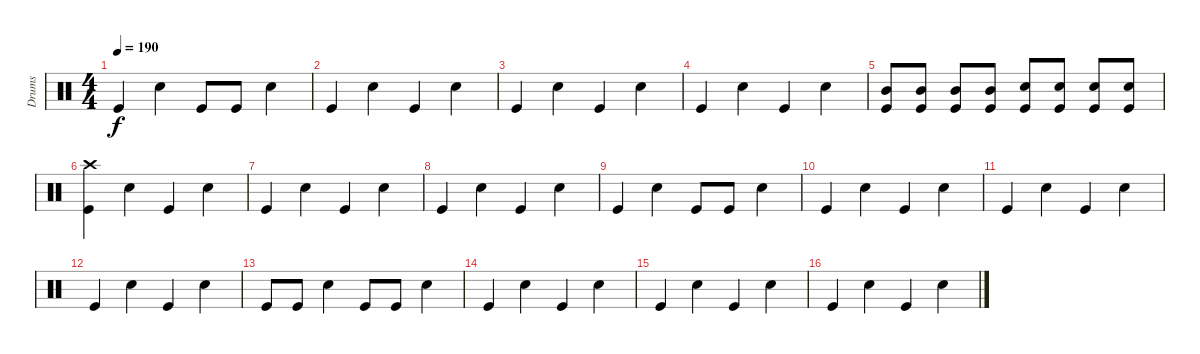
\track ("Drums" "Drums") {instrument percussion}
\staff {score}
\articulation defaults
\ts (4 4)
\tempo 190
\clef neutral
\ks c "Kick (hit)".4{dy f} "Snare (hit) 2".4 "Kick (hit)".8 "Kick (hit)".8 "Snare (hit) 2".4
|
"Kick (hit)".4 "Snare (hit) 2".4 "Kick (hit)".4 "Snare (hit) 2".4 |
"Kick (hit)".4 "Snare (hit) 2".4 "Kick (hit)".4 "Snare (hit) 2".4 |
"Kick (hit)".4 "Snare (hit) 2".4 "Kick (hit)".4 "Snare (hit) 2".4 |
("Mid Tom (hit)" "Kick (hit)").8 ("Mid Tom (hit)" "Kick (hit)").8 ("Mid Tom (hit)" "Kick (hit)").8 ("Mid Tom (hit)" "Kick (hit)").8 ("Electric Snare (hit)" "Kick (hit)").8 ("Electric Snare (hit)" "Kick (hit)").8 ("Electric Snare (hit)" "Kick (hit)").8 ("Electric Snare (hit)" "Kick (hit)").8 |
("Crash high (hit)" "Kick (hit)").4 "Snare (hit) 2".4 "Kick (hit)".4 "Snare (hit) 2".4 |
"Kick (hit)".4 "Snare (hit) 2".4 "Kick (hit)".4 "Snare (hit) 2".4 |
"Kick (hit)".4 "Snare (hit) 2".4 "Kick (hit)".4 "Snare (hit) 2".4 |
"Kick (hit)".4 "Snare (hit) 2".4 "Kick (hit)".8 "Kick (hit)".8 "Snare (hit) 2".4 |
"Kick (hit)".4 "Snare (hit) 2".4 "Kick (hit)".4 "Snare (hit) 2".4 |
"Kick (hit)".4 "Snare (hit) 2".4 "Kick (hit)".4 "Snare (hit) 2".4 |
"Kick (hit)".4 "Snare (hit) 2".4 "Kick (hit)".4 "Snare (hit) 2".4 |
"Kick (hit)".8 "Kick (hit)".8 "Snare (hit) 2".4 "Kick (hit)".8 "Kick (hit)".8 "Snare (hit) 2".4 |
"Kick (hit)".4 "Snare (hit) 2".4 "Kick (hit)".4 "Snare (hit) 2".4 |
"Kick (hit)".4 "Snare (hit) 2".4 "Kick (hit)".4 "Snare (hit) 2".4 |
"Kick (hit)".4 "Snare (hit) 2".4 "Kick (hit)".4 "Snare (hit) 2".4
